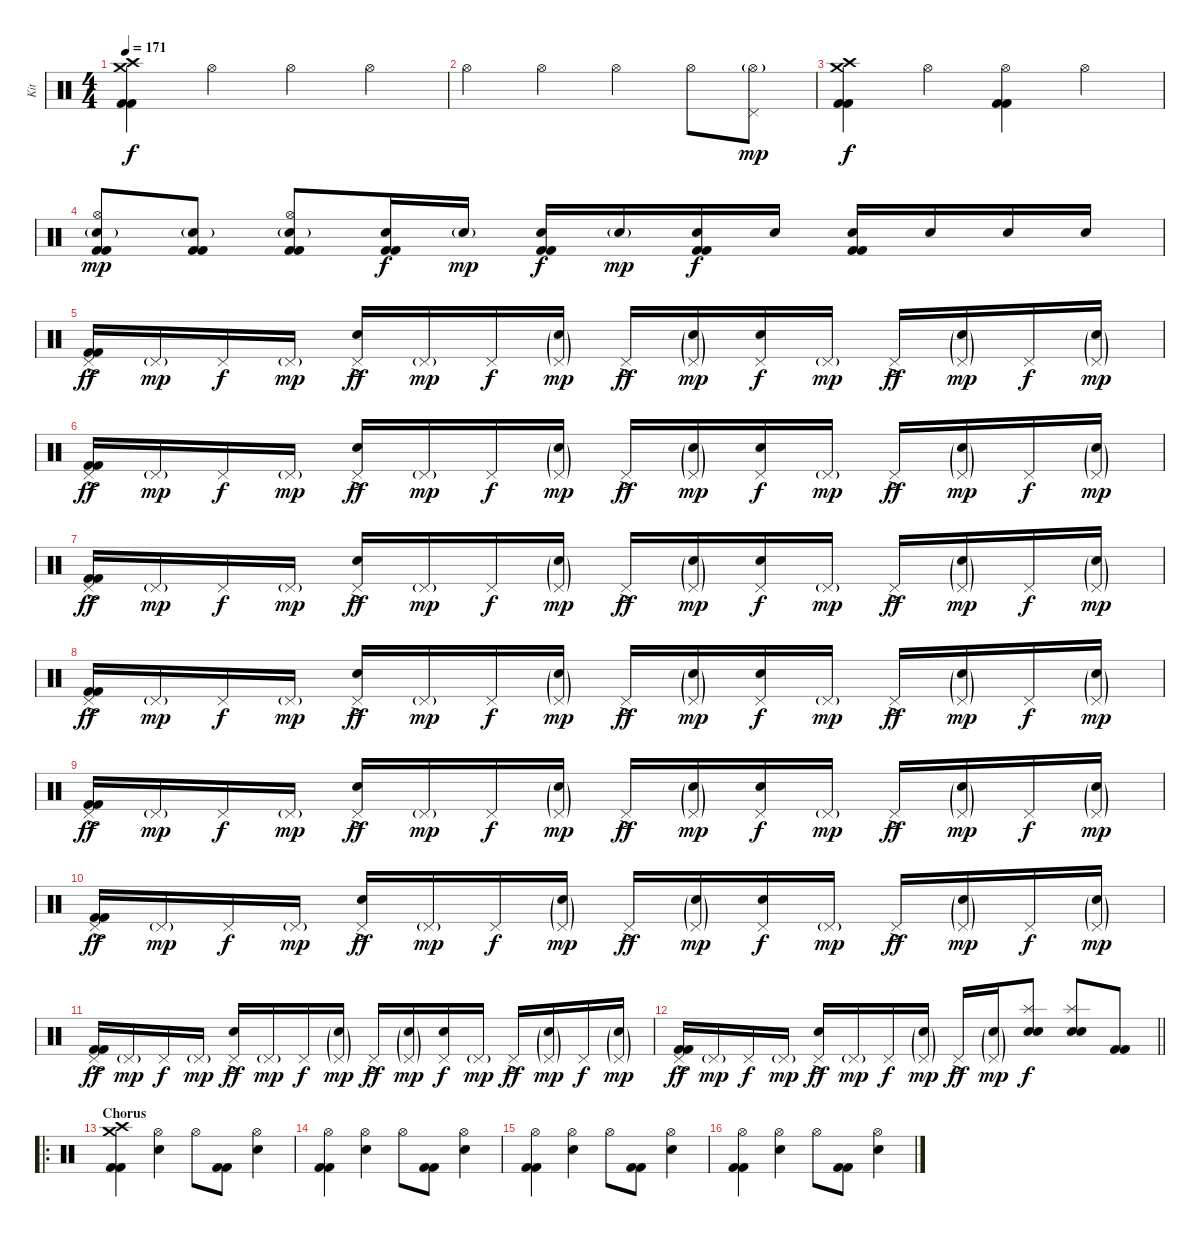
\track ("Kit" "Kit") {instrument percussion}
\staff {score}
\articulation defaults
\ts (4 4)
\tempo 171
\clef neutral
\ks c
("Crash medium (hit)" "Crash high (hit)" "Kick (hit) 2" "Kick (hit) 2").4{dy f} "Hi-Hat (open)".4 "Hi-Hat (open)".4 "Hi-Hat (open)".4 |
"Hi-Hat (open)".4 "Hi-Hat (open)".4 "Hi-Hat (open)".4 "Hi-Hat (open)".8 ("Hi-Hat (open)"{g} "Pedal Hi-Hat (hit)").8{dy mp} |
("Crash medium (hit)" "Crash high (hit)" "Kick (hit) 2" "Kick (hit) 2").4{dy f} "Hi-Hat (open)".4 ("Hi-Hat (open)" "Kick (hit) 2" "Kick (hit) 2").4 "Hi-Hat (open)".4 |
("Hi-Hat (open)" "Electric Snare (hit)"{g} "Kick (hit) 2" "Kick (hit) 2").8{dy mp} ("Electric Snare (hit)"{g} "Kick (hit) 2" "Kick (hit) 2").8 ("Hi-Hat (open)" "Electric Snare (hit)"{g} "Kick (hit) 2" "Kick (hit) 2").8 ("Electric Snare (hit)" "Kick (hit) 2" "Kick (hit) 2").16{dy f} "Electric Snare (hit)"{g}.16{dy mp} ("Electric Snare (hit)" "Kick (hit) 2" "Kick (hit) 2").16{dy f} "Electric Snare (hit)"{g}.16{dy mp} ("Electric Snare (hit)" "Kick (hit) 2" "Kick (hit) 2").16{dy f} "Electric Snare (hit)".16 ("Electric Snare (hit)" "Kick (hit) 2" "Kick (hit) 2").16 "Electric Snare (hit)".16 "Electric Snare (hit)".16 "Electric Snare (hit)".16 |
("Pedal Hi-Hat (hit)"{ac} "Kick (hit) 2" "Kick (hit) 2").16{dy ff} "Pedal Hi-Hat (hit)"{g}.16{dy mp} "Pedal Hi-Hat (hit)".16{dy f} "Pedal Hi-Hat (hit)"{g}.16{dy mp} ("Pedal Hi-Hat (hit)"{ac} "Electric Snare (hit)").16{dy ff} "Pedal Hi-Hat (hit)"{g}.16{dy mp} "Pedal Hi-Hat (hit)".16{dy f} ("Pedal Hi-Hat (hit)"{g} "Electric Snare (hit)"{g}).16{dy mp} "Pedal Hi-Hat (hit)"{ac}.16{dy ff} ("Pedal Hi-Hat (hit)"{g} "Electric Snare (hit)"{g}).16{dy mp} ("Pedal Hi-Hat (hit)" "Electric Snare (hit)").16{dy f} "Pedal Hi-Hat (hit)"{g}.16{dy mp} "Pedal Hi-Hat (hit)"{ac}.16{dy ff} ("Pedal Hi-Hat (hit)"{g} "Electric Snare (hit)"{g}).16{dy mp} "Pedal Hi-Hat (hit)".16{dy f} ("Pedal Hi-Hat (hit)"{g} "Electric Snare (hit)"{g}).16{dy mp} |
("Pedal Hi-Hat (hit)"{ac} "Kick (hit) 2" "Kick (hit) 2").16{dy ff} "Pedal Hi-Hat (hit)"{g}.16{dy mp} "Pedal Hi-Hat (hit)".16{dy f} "Pedal Hi-Hat (hit)"{g}.16{dy mp} ("Pedal Hi-Hat (hit)"{ac} "Electric Snare (hit)").16{dy ff} "Pedal Hi-Hat (hit)"{g}.16{dy mp} "Pedal Hi-Hat (hit)".16{dy f} ("Pedal Hi-Hat (hit)"{g} "Electric Snare (hit)"{g}).16{dy mp} "Pedal Hi-Hat (hit)"{ac}.16{dy ff} ("Pedal Hi-Hat (hit)"{g} "Electric Snare (hit)"{g}).16{dy mp} ("Pedal Hi-Hat (hit)" "Electric Snare (hit)").16{dy f} "Pedal Hi-Hat (hit)"{g}.16{dy mp} "Pedal Hi-Hat (hit)"{ac}.16{dy ff} ("Pedal Hi-Hat (hit)"{g} "Electric Snare (hit)"{g}).16{dy mp} "Pedal Hi-Hat (hit)".16{dy f} ("Pedal Hi-Hat (hit)"{g} "Electric Snare (hit)"{g}).16{dy mp} |
("Pedal Hi-Hat (hit)"{ac} "Kick (hit) 2" "Kick (hit) 2").16{dy ff} "Pedal Hi-Hat (hit)"{g}.16{dy mp} "Pedal Hi-Hat (hit)".16{dy f} "Pedal Hi-Hat (hit)"{g}.16{dy mp} ("Pedal Hi-Hat (hit)"{ac} "Electric Snare (hit)").16{dy ff} "Pedal Hi-Hat (hit)"{g}.16{dy mp} "Pedal Hi-Hat (hit)".16{dy f} ("Pedal Hi-Hat (hit)"{g} "Electric Snare (hit)"{g}).16{dy mp} "Pedal Hi-Hat (hit)"{ac}.16{dy ff} ("Pedal Hi-Hat (hit)"{g} "Electric Snare (hit)"{g}).16{dy mp} ("Pedal Hi-Hat (hit)" "Electric Snare (hit)").16{dy f} "Pedal Hi-Hat (hit)"{g}.16{dy mp} "Pedal Hi-Hat (hit)"{ac}.16{dy ff} ("Pedal Hi-Hat (hit)"{g} "Electric Snare (hit)"{g}).16{dy mp} "Pedal Hi-Hat (hit)".16{dy f} ("Pedal Hi-Hat (hit)"{g} "Electric Snare (hit)"{g}).16{dy mp} |
("Pedal Hi-Hat (hit)"{ac} "Kick (hit) 2" "Kick (hit) 2").16{dy ff} "Pedal Hi-Hat (hit)"{g}.16{dy mp} "Pedal Hi-Hat (hit)".16{dy f} "Pedal Hi-Hat (hit)"{g}.16{dy mp} ("Pedal Hi-Hat (hit)"{ac} "Electric Snare (hit)").16{dy ff} "Pedal Hi-Hat (hit)"{g}.16{dy mp} "Pedal Hi-Hat (hit)".16{dy f} ("Pedal Hi-Hat (hit)"{g} "Electric Snare (hit)"{g}).16{dy mp} "Pedal Hi-Hat (hit)"{ac}.16{dy ff} ("Pedal Hi-Hat (hit)"{g} "Electric Snare (hit)"{g}).16{dy mp} ("Pedal Hi-Hat (hit)" "Electric Snare (hit)").16{dy f} "Pedal Hi-Hat (hit)"{g}.16{dy mp} "Pedal Hi-Hat (hit)"{ac}.16{dy ff} ("Pedal Hi-Hat (hit)"{g} "Electric Snare (hit)"{g}).16{dy mp} "Pedal Hi-Hat (hit)".16{dy f} ("Pedal Hi-Hat (hit)"{g} "Electric Snare (hit)"{g}).16{dy mp} |
("Pedal Hi-Hat (hit)"{ac} "Kick (hit) 2" "Kick (hit) 2").16{dy ff} "Pedal Hi-Hat (hit)"{g}.16{dy mp} "Pedal Hi-Hat (hit)".16{dy f} "Pedal Hi-Hat (hit)"{g}.16{dy mp} ("Pedal Hi-Hat (hit)"{ac} "Electric Snare (hit)").16{dy ff} "Pedal Hi-Hat (hit)"{g}.16{dy mp} "Pedal Hi-Hat (hit)".16{dy f} ("Pedal Hi-Hat (hit)"{g} "Electric Snare (hit)"{g}).16{dy mp} "Pedal Hi-Hat (hit)"{ac}.16{dy ff} ("Pedal Hi-Hat (hit)"{g} "Electric Snare (hit)"{g}).16{dy mp} ("Pedal Hi-Hat (hit)" "Electric Snare (hit)").16{dy f} "Pedal Hi-Hat (hit)"{g}.16{dy mp} "Pedal Hi-Hat (hit)"{ac}.16{dy ff} ("Pedal Hi-Hat (hit)"{g} "Electric Snare (hit)"{g}).16{dy mp} "Pedal Hi-Hat (hit)".16{dy f} ("Pedal Hi-Hat (hit)"{g} "Electric Snare (hit)"{g}).16{dy mp} |
("Pedal Hi-Hat (hit)"{ac} "Kick (hit) 2" "Kick (hit) 2").16{dy ff} "Pedal Hi-Hat (hit)"{g}.16{dy mp} "Pedal Hi-Hat (hit)".16{dy f} "Pedal Hi-Hat (hit)"{g}.16{dy mp} ("Pedal Hi-Hat (hit)"{ac} "Electric Snare (hit)").16{dy ff} "Pedal Hi-Hat (hit)"{g}.16{dy mp} "Pedal Hi-Hat (hit)".16{dy f} ("Pedal Hi-Hat (hit)"{g} "Electric Snare (hit)"{g}).16{dy mp} "Pedal Hi-Hat (hit)"{ac}.16{dy ff} ("Pedal Hi-Hat (hit)"{g} "Electric Snare (hit)"{g}).16{dy mp} ("Pedal Hi-Hat (hit)" "Electric Snare (hit)").16{dy f} "Pedal Hi-Hat (hit)"{g}.16{dy mp} "Pedal Hi-Hat (hit)"{ac}.16{dy ff} ("Pedal Hi-Hat (hit)"{g} "Electric Snare (hit)"{g}).16{dy mp} "Pedal Hi-Hat (hit)".16{dy f} ("Pedal Hi-Hat (hit)"{g} "Electric Snare (hit)"{g}).16{dy mp} |
("Pedal Hi-Hat (hit)"{ac} "Kick (hit) 2" "Kick (hit) 2").16{dy ff} "Pedal Hi-Hat (hit)"{g}.16{dy mp} "Pedal Hi-Hat (hit)".16{dy f} "Pedal Hi-Hat (hit)"{g}.16{dy mp} ("Pedal Hi-Hat (hit)"{ac} "Electric Snare (hit)").16{dy ff} "Pedal Hi-Hat (hit)"{g}.16{dy mp} "Pedal Hi-Hat (hit)".16{dy f} ("Pedal Hi-Hat (hit)"{g} "Electric Snare (hit)"{g}).16{dy mp} "Pedal Hi-Hat (hit)"{ac}.16{dy ff} ("Pedal Hi-Hat (hit)"{g} "Electric Snare (hit)"{g}).16{dy mp} ("Pedal Hi-Hat (hit)" "Electric Snare (hit)").16{dy f} "Pedal Hi-Hat (hit)"{g}.16{dy mp} "Pedal Hi-Hat (hit)"{ac}.16{dy ff} ("Pedal Hi-Hat (hit)"{g} "Electric Snare (hit)"{g}).16{dy mp} "Pedal Hi-Hat (hit)".16{dy f} ("Pedal Hi-Hat (hit)"{g} "Electric Snare (hit)"{g}).16{dy mp} |
\barLineRight lightlight
("Pedal Hi-Hat (hit)"{ac} "Kick (hit) 2" "Kick (hit) 2").16{dy ff} "Pedal Hi-Hat (hit)"{g}.16{dy mp} "Pedal Hi-Hat (hit)".16{dy f} "Pedal Hi-Hat (hit)"{g}.16{dy mp} ("Pedal Hi-Hat (hit)"{ac} "Electric Snare (hit)").16{dy ff} "Pedal Hi-Hat (hit)"{g}.16{dy mp} "Pedal Hi-Hat (hit)".16{dy f} ("Pedal Hi-Hat (hit)"{g} "Electric Snare (hit)"{g}).16{dy mp} "Pedal Hi-Hat (hit)"{ac}.16{dy ff} ("Pedal Hi-Hat (hit)"{g} "Electric Snare (hit)"{g}).16{dy mp} ("Splash (hit)" "Snare (hit) 2" "Electric Snare (hit)").8{bd 240 dy f} ("Splash (hit)" "Snare (hit) 2" "Electric Snare (hit)").8{bd 240} ("Kick (hit) 2" "Kick (hit) 2").8 |
\ro
\section ("" "Chorus")
("Crash medium (hit)" "Crash high (hit)" "Kick (hit) 2" "Kick (hit) 2").4 ("Hi-Hat (open)" "Electric Snare (hit)").4 "Hi-Hat (open)".8 ("Kick (hit) 2" "Kick (hit) 2").8 ("Hi-Hat (open)" "Electric Snare (hit)").4 |
("Hi-Hat (open)" "Kick (hit) 2" "Kick (hit) 2").4 ("Hi-Hat (open)" "Electric Snare (hit)").4 "Hi-Hat (open)".8 ("Kick (hit) 2" "Kick (hit) 2").8 ("Hi-Hat (open)" "Electric Snare (hit)").4 |
("Hi-Hat (open)" "Kick (hit) 2" "Kick (hit) 2").4 ("Hi-Hat (open)" "Electric Snare (hit)").4 "Hi-Hat (open)".8 ("Kick (hit) 2" "Kick (hit) 2").8 ("Hi-Hat (open)" "Electric Snare (hit)").4 |
("Hi-Hat (open)" "Kick (hit) 2" "Kick (hit) 2").4 ("Hi-Hat (open)" "Electric Snare (hit)").4 "Hi-Hat (open)".8 ("Kick (hit) 2" "Kick (hit) 2").8 ("Hi-Hat (open)" "Electric Snare (hit)").4
